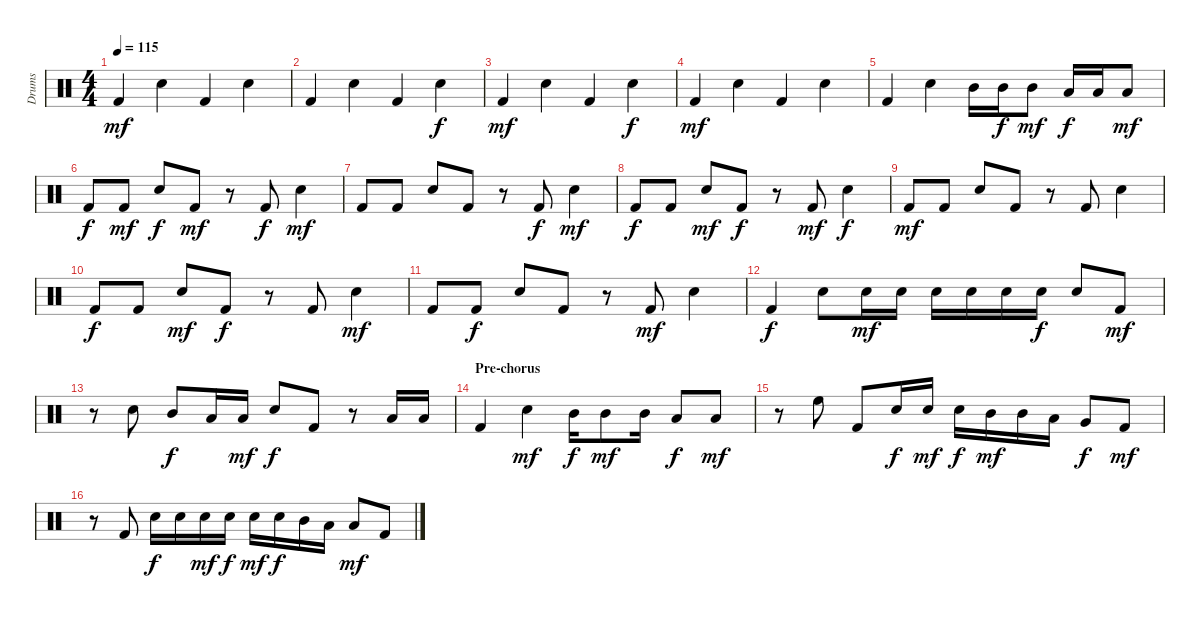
\track ("Drums" "Drums") {instrument percussion}
\staff {score}
\articulation defaults
\ts (4 4)
\tempo 115
\clef neutral
\ks c "Kick (hit) 2".4{dy mf} "Electric Snare (hit)".4 "Kick (hit) 2".4 "Electric Snare (hit)".4
|
"Kick (hit) 2".4 "Electric Snare (hit)".4 "Kick (hit) 2".4 "Electric Snare (hit)".4{dy f} |
"Kick (hit) 2".4{dy mf} "Electric Snare (hit)".4 "Kick (hit) 2".4 "Electric Snare (hit)".4{dy f} |
"Kick (hit) 2".4{dy mf} "Electric Snare (hit)".4 "Kick (hit) 2".4 "Electric Snare (hit)".4 |
"Kick (hit) 2".4 "Electric Snare (hit)".4 "Mid Tom (hit)".16 "Mid Tom (hit)".16{dy f} "Mid Tom (hit)".8{dy mf} "Low Tom (hit)".16{dy f} "Low Tom (hit)".16 "Low Tom (hit)".8{dy mf} |
"Kick (hit) 2".8{dy f} "Kick (hit) 2".8{dy mf} "Electric Snare (hit)".8{dy f} "Kick (hit) 2".8{dy mf} r.8 "Kick (hit) 2".8{dy f} "Electric Snare (hit)".4{dy mf} |
"Kick (hit) 2".8 "Kick (hit) 2".8 "Electric Snare (hit)".8 "Kick (hit) 2".8 r.8 "Kick (hit) 2".8{dy f} "Electric Snare (hit)".4{dy mf} |
"Kick (hit) 2".8{dy f} "Kick (hit) 2".8 "Electric Snare (hit)".8{dy mf} "Kick (hit) 2".8{dy f} r.8 "Kick (hit) 2".8{dy mf} "Electric Snare (hit)".4{dy f} |
"Kick (hit) 2".8{dy mf} "Kick (hit) 2".8 "Electric Snare (hit)".8 "Kick (hit) 2".8 r.8 "Kick (hit) 2".8 "Electric Snare (hit)".4 |
"Kick (hit) 2".8{dy f} "Kick (hit) 2".8 "Electric Snare (hit)".8{dy mf} "Kick (hit) 2".8{dy f} r.8 "Kick (hit) 2".8 "Electric Snare (hit)".4{dy mf} |
"Kick (hit) 2".8 "Kick (hit) 2".8{dy f} "Electric Snare (hit)".8 "Kick (hit) 2".8 r.8 "Kick (hit) 2".8{dy mf} "Electric Snare (hit)".4 |
"Kick (hit) 2".4{dy f} "Electric Snare (hit)".8 "Electric Snare (hit)".16{dy mf} "Electric Snare (hit)".16 "Electric Snare (hit)".16 "Electric Snare (hit)".16 "Electric Snare (hit)".16 "Electric Snare (hit)".16{dy f} "Electric Snare (hit)".8 "Kick (hit) 2".8{dy mf} |
r.8 "Electric Snare (hit)".8 "Mid Tom (hit)".8{dy f} "Low Tom (hit)".16 "Low Tom (hit)".16{dy mf} "Electric Snare (hit)".8{dy f} "Kick (hit) 2".8 r.8 "Low Tom (hit)".16 "Low Tom (hit)".16 |
\section ("" "Pre-chorus")
"Kick (hit) 2".4 "Electric Snare (hit)".4{dy mf} "Mid Tom (hit)".16{dy f} "Mid Tom (hit)".8{dy mf} "Mid Tom (hit)".16 "Low Tom (hit)".8{dy f} "Low Floor Tom (hit)".8{dy mf} |
r.8 "High Floor Tom (hit)".8 "Kick (hit) 2".8 "Electric Snare (hit)".16{dy f} "Electric Snare (hit)".16{dy mf} "Electric Snare (hit)".16{dy f} "Mid Tom (hit)".16{dy mf} "Mid Tom (hit)".16 "Low Tom (hit)".16 "Very Low Tom (hit)".8{dy f} "Kick (hit) 2".8{dy mf} |
r.8 "Kick (hit) 2".8 "Electric Snare (hit)".16{dy f} "Electric Snare (hit)".16 "Electric Snare (hit)".16{dy mf} "Electric Snare (hit)".16{dy f} "Electric Snare (hit)".16{dy mf} "Electric Snare (hit)".16{dy f} "Mid Tom (hit)".16 "Low Tom (hit)".16 "Low Tom (hit)".8{dy mf} "Kick (hit) 2".8
